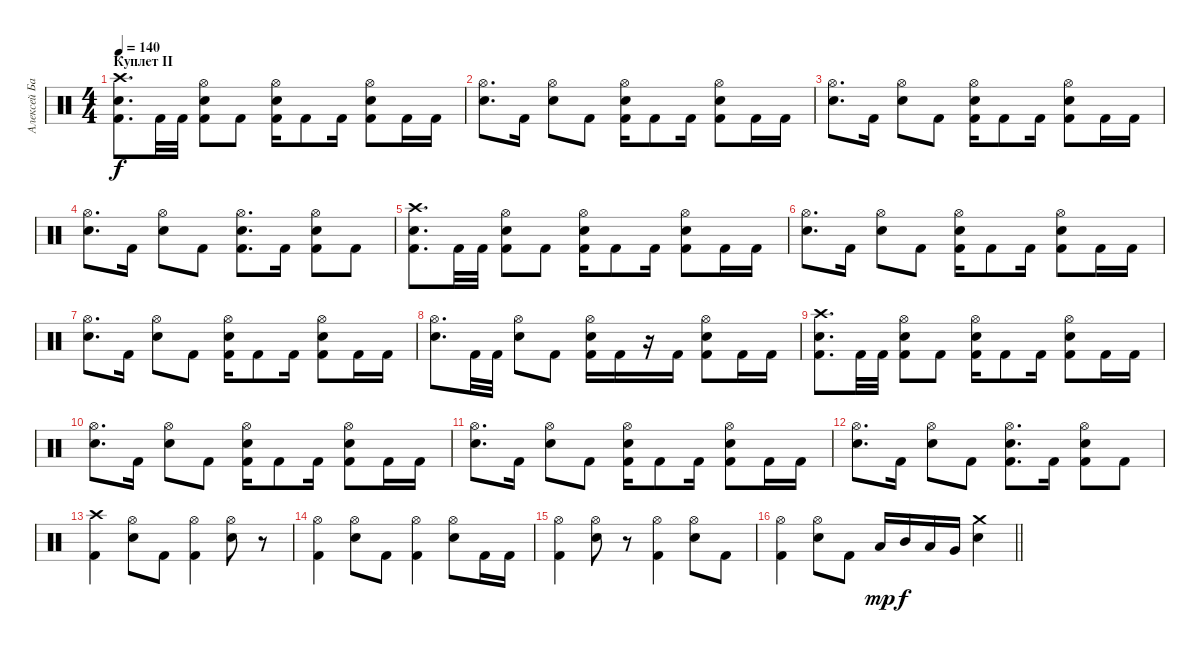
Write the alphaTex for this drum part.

\track ("Алексей Барзилович" "Алексей Ба") {instrument percussion}
\staff {score}
\articulation defaults
\ts (4 4)
\section ("" "Куплет II")
\tempo 140
\clef neutral
\ks c
("Crash high (hit)" "Electric Snare (hit)" "Kick (hit) 2").8{d dy f} "Kick (hit) 2".32 "Kick (hit) 2".32 ("Hi-Hat (open)" "Electric Snare (hit)" "Kick (hit) 2").8 "Kick (hit) 2".8 ("Hi-Hat (open)" "Electric Snare (hit)" "Kick (hit) 2").16 "Kick (hit) 2".8 "Kick (hit) 2".16 ("Hi-Hat (open)" "Electric Snare (hit)" "Kick (hit) 2").8 "Kick (hit) 2".16 "Kick (hit) 2".16 |
("Hi-Hat (open)" "Electric Snare (hit)").8{d} "Kick (hit) 2".16 ("Hi-Hat (open)" "Electric Snare (hit)").8 "Kick (hit) 2".8 ("Hi-Hat (open)" "Electric Snare (hit)" "Kick (hit) 2").16 "Kick (hit) 2".8 "Kick (hit) 2".16 ("Hi-Hat (open)" "Electric Snare (hit)" "Kick (hit) 2").8 "Kick (hit) 2".16 "Kick (hit) 2".16 |
("Hi-Hat (open)" "Electric Snare (hit)").8{d} "Kick (hit) 2".16 ("Hi-Hat (open)" "Electric Snare (hit)").8 "Kick (hit) 2".8 ("Hi-Hat (open)" "Electric Snare (hit)" "Kick (hit) 2").16 "Kick (hit) 2".8 "Kick (hit) 2".16 ("Hi-Hat (open)" "Electric Snare (hit)" "Kick (hit) 2").8 "Kick (hit) 2".16 "Kick (hit) 2".16 |
("Hi-Hat (open)" "Electric Snare (hit)").8{d} "Kick (hit) 2".16 ("Hi-Hat (open)" "Electric Snare (hit)").8 "Kick (hit) 2".8 ("Hi-Hat (open)" "Electric Snare (hit)" "Kick (hit) 2").8{d} "Kick (hit) 2".16 ("Hi-Hat (open)" "Electric Snare (hit)" "Kick (hit) 2").8 "Kick (hit) 2".8 |
("Crash high (hit)" "Electric Snare (hit)" "Kick (hit) 2").8{d} "Kick (hit) 2".32 "Kick (hit) 2".32 ("Hi-Hat (open)" "Electric Snare (hit)" "Kick (hit) 2").8 "Kick (hit) 2".8 ("Hi-Hat (open)" "Electric Snare (hit)" "Kick (hit) 2").16 "Kick (hit) 2".8 "Kick (hit) 2".16 ("Hi-Hat (open)" "Electric Snare (hit)" "Kick (hit) 2").8 "Kick (hit) 2".16 "Kick (hit) 2".16 |
("Hi-Hat (open)" "Electric Snare (hit)").8{d} "Kick (hit) 2".16 ("Hi-Hat (open)" "Electric Snare (hit)").8 "Kick (hit) 2".8 ("Hi-Hat (open)" "Electric Snare (hit)" "Kick (hit) 2").16 "Kick (hit) 2".8 "Kick (hit) 2".16 ("Hi-Hat (open)" "Electric Snare (hit)" "Kick (hit) 2").8 "Kick (hit) 2".16 "Kick (hit) 2".16 |
("Hi-Hat (open)" "Electric Snare (hit)").8{d} "Kick (hit) 2".16 ("Hi-Hat (open)" "Electric Snare (hit)").8 "Kick (hit) 2".8 ("Hi-Hat (open)" "Electric Snare (hit)" "Kick (hit) 2").16 "Kick (hit) 2".8 "Kick (hit) 2".16 ("Hi-Hat (open)" "Electric Snare (hit)" "Kick (hit) 2").8 "Kick (hit) 2".16 "Kick (hit) 2".16 |
("Hi-Hat (open)" "Electric Snare (hit)").8{d} "Kick (hit) 2".32 "Kick (hit) 2".32 ("Hi-Hat (open)" "Electric Snare (hit)").8 "Kick (hit) 2".8 ("Hi-Hat (open)" "Electric Snare (hit)" "Kick (hit) 2").16 "Kick (hit) 2".16 r.16 "Kick (hit) 2".16 ("Hi-Hat (open)" "Electric Snare (hit)" "Kick (hit) 2").8 "Kick (hit) 2".16 "Kick (hit) 2".16 |
("Crash high (hit)" "Electric Snare (hit)" "Kick (hit) 2").8{d} "Kick (hit) 2".32 "Kick (hit) 2".32 ("Hi-Hat (open)" "Electric Snare (hit)" "Kick (hit) 2").8 "Kick (hit) 2".8 ("Hi-Hat (open)" "Electric Snare (hit)" "Kick (hit) 2").16 "Kick (hit) 2".8 "Kick (hit) 2".16 ("Hi-Hat (open)" "Electric Snare (hit)" "Kick (hit) 2").8 "Kick (hit) 2".16 "Kick (hit) 2".16 |
("Hi-Hat (open)" "Electric Snare (hit)").8{d} "Kick (hit) 2".16 ("Hi-Hat (open)" "Electric Snare (hit)").8 "Kick (hit) 2".8 ("Hi-Hat (open)" "Electric Snare (hit)" "Kick (hit) 2").16 "Kick (hit) 2".8 "Kick (hit) 2".16 ("Hi-Hat (open)" "Electric Snare (hit)" "Kick (hit) 2").8 "Kick (hit) 2".16 "Kick (hit) 2".16 |
("Hi-Hat (open)" "Electric Snare (hit)").8{d} "Kick (hit) 2".16 ("Hi-Hat (open)" "Electric Snare (hit)").8 "Kick (hit) 2".8 ("Hi-Hat (open)" "Electric Snare (hit)" "Kick (hit) 2").16 "Kick (hit) 2".8 "Kick (hit) 2".16 ("Hi-Hat (open)" "Electric Snare (hit)" "Kick (hit) 2").8 "Kick (hit) 2".16 "Kick (hit) 2".16 |
("Hi-Hat (open)" "Electric Snare (hit)").8{d} "Kick (hit) 2".16 ("Hi-Hat (open)" "Electric Snare (hit)").8 "Kick (hit) 2".8 ("Hi-Hat (open)" "Electric Snare (hit)" "Kick (hit) 2").8{d} "Kick (hit) 2".16 ("Hi-Hat (open)" "Electric Snare (hit)" "Kick (hit) 2").8 "Kick (hit) 2".8 |
("Crash high (hit)" "Kick (hit) 2").4 ("Hi-Hat (open)" "Electric Snare (hit)").8 "Kick (hit) 2".8 ("Hi-Hat (open)" "Kick (hit) 2").4 ("Hi-Hat (open)" "Electric Snare (hit)").8 r.8 |
("Hi-Hat (open)" "Kick (hit) 2").4 ("Hi-Hat (open)" "Electric Snare (hit)").8 "Kick (hit) 2".8 ("Hi-Hat (open)" "Kick (hit) 2").4 ("Hi-Hat (open)" "Electric Snare (hit)").8 "Kick (hit) 2".16 "Kick (hit) 2".16 |
("Hi-Hat (open)" "Kick (hit) 2").4 ("Hi-Hat (open)" "Electric Snare (hit)").8 r.8 ("Hi-Hat (open)" "Kick (hit) 2").4 ("Hi-Hat (open)" "Electric Snare (hit)").8 "Kick (hit) 2".8 |
\barLineRight lightlight
("Hi-Hat (open)" "Kick (hit) 2").4 ("Hi-Hat (open)" "Electric Snare (hit)").8 "Kick (hit) 2".8 "Low Tom (hit)".16{dy mp} "Mid Tom (hit)".16{dy f} "Low Tom (hit)".16 "Very Low Tom (hit)".16 ("Crash medium (hit)" "Electric Snare (hit)").4
